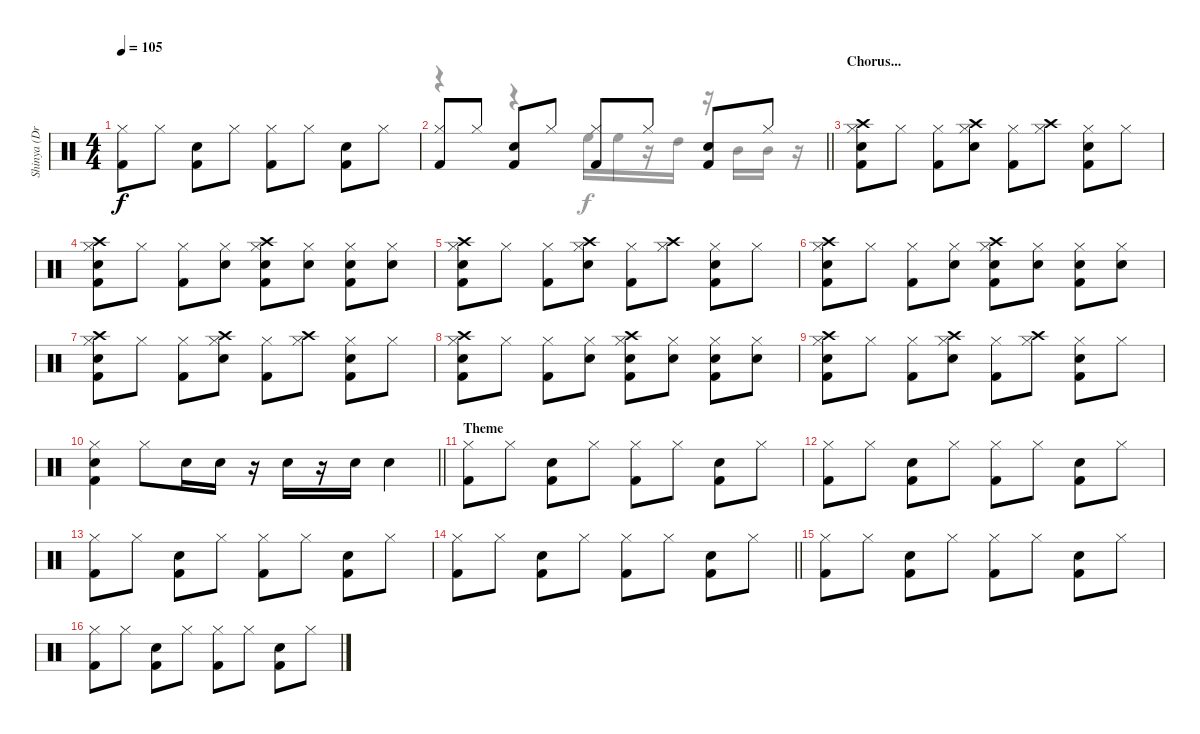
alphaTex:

\track ("Shinya (Drums)" "Shinya (Dr") {instrument percussion}
\staff {score}
\articulation defaults
\voice
\ts (4 4)
\tempo 105
\clef neutral
\ks c
("Hi-Hat (closed)" "Kick (hit) 2").8{dy f} "Hi-Hat (closed)".8 ("Snare (hit) 2" "Kick (hit) 2").8 "Hi-Hat (closed)".8 ("Hi-Hat (closed)" "Kick (hit) 2").8 "Hi-Hat (closed)".8 ("Snare (hit) 2" "Kick (hit) 2").8 "Hi-Hat (closed)".8 |
\barLineRight lightlight
("Hi-Hat (closed)" "Kick (hit) 2").8 "Hi-Hat (closed)".8 ("Snare (hit) 2" "Kick (hit) 2").8 "Hi-Hat (closed)".8 ("Hi-Hat (closed)" "Kick (hit) 2").8 "Hi-Hat (closed)".8 ("Snare (hit) 2" "Kick (hit) 2").8 "Hi-Hat (closed)".8 |
\section ("" "Chorus...")
("Crash high (hit)" "Hi-Hat (closed)" "Snare (hit) 2" "Kick (hit) 2").8 "Hi-Hat (closed)".8 ("Hi-Hat (closed)" "Kick (hit) 2").8 ("Crash high (hit)" "Hi-Hat (closed)" "Snare (hit) 2").8 ("Hi-Hat (closed)" "Kick (hit) 2").8 ("Crash high (hit)" "Hi-Hat (closed)").8 ("Hi-Hat (closed)" "Snare (hit) 2" "Kick (hit) 2").8 "Hi-Hat (closed)".8 |
("Crash high (hit)" "Hi-Hat (closed)" "Snare (hit) 2" "Kick (hit) 2").8 "Hi-Hat (closed)".8 ("Hi-Hat (closed)" "Kick (hit) 2").8 ("Hi-Hat (closed)" "Snare (hit) 2").8 ("Crash high (hit)" "Hi-Hat (closed)" "Snare (hit) 2" "Kick (hit) 2").8 ("Hi-Hat (closed)" "Snare (hit) 2").8 ("Hi-Hat (closed)" "Snare (hit) 2" "Kick (hit) 2").8 ("Hi-Hat (closed)" "Snare (hit) 2").8 |
("Crash high (hit)" "Hi-Hat (closed)" "Snare (hit) 2" "Kick (hit) 2").8 "Hi-Hat (closed)".8 ("Hi-Hat (closed)" "Kick (hit) 2").8 ("Crash high (hit)" "Hi-Hat (closed)" "Snare (hit) 2").8 ("Hi-Hat (closed)" "Kick (hit) 2").8 ("Crash high (hit)" "Hi-Hat (closed)").8 ("Hi-Hat (closed)" "Snare (hit) 2" "Kick (hit) 2").8 "Hi-Hat (closed)".8 |
("Crash high (hit)" "Hi-Hat (closed)" "Snare (hit) 2" "Kick (hit) 2").8 "Hi-Hat (closed)".8 ("Hi-Hat (closed)" "Kick (hit) 2").8 ("Hi-Hat (closed)" "Snare (hit) 2").8 ("Crash high (hit)" "Hi-Hat (closed)" "Snare (hit) 2" "Kick (hit) 2").8 ("Hi-Hat (closed)" "Snare (hit) 2").8 ("Hi-Hat (closed)" "Snare (hit) 2" "Kick (hit) 2").8 ("Hi-Hat (closed)" "Snare (hit) 2").8 |
("Crash high (hit)" "Hi-Hat (closed)" "Snare (hit) 2" "Kick (hit) 2").8 "Hi-Hat (closed)".8 ("Hi-Hat (closed)" "Kick (hit) 2").8 ("Crash high (hit)" "Hi-Hat (closed)" "Snare (hit) 2").8 ("Hi-Hat (closed)" "Kick (hit) 2").8 ("Crash high (hit)" "Hi-Hat (closed)").8 ("Hi-Hat (closed)" "Snare (hit) 2" "Kick (hit) 2").8 "Hi-Hat (closed)".8 |
("Crash high (hit)" "Hi-Hat (closed)" "Snare (hit) 2" "Kick (hit) 2").8 "Hi-Hat (closed)".8 ("Hi-Hat (closed)" "Kick (hit) 2").8 ("Hi-Hat (closed)" "Snare (hit) 2").8 ("Crash high (hit)" "Hi-Hat (closed)" "Snare (hit) 2" "Kick (hit) 2").8 ("Hi-Hat (closed)" "Snare (hit) 2").8 ("Hi-Hat (closed)" "Snare (hit) 2" "Kick (hit) 2").8 ("Hi-Hat (closed)" "Snare (hit) 2").8 |
("Crash high (hit)" "Hi-Hat (closed)" "Snare (hit) 2" "Kick (hit) 2").8 "Hi-Hat (closed)".8 ("Hi-Hat (closed)" "Kick (hit) 2").8 ("Crash high (hit)" "Hi-Hat (closed)" "Snare (hit) 2").8 ("Hi-Hat (closed)" "Kick (hit) 2").8 ("Crash high (hit)" "Hi-Hat (closed)").8 ("Hi-Hat (closed)" "Snare (hit) 2" "Kick (hit) 2").8 "Hi-Hat (closed)".8 |
\barLineRight lightlight
("Hi-Hat (closed)" "Snare (hit) 2" "Kick (hit) 2").4 "Hi-Hat (closed)".8 "Snare (hit) 2".16 "Snare (hit) 2".16 r.16 "Snare (hit) 2".16 r.16 "Snare (hit) 2".16 "Snare (hit) 2".4 |
\section ("" "Theme")
("Hi-Hat (closed)" "Kick (hit) 2").8 "Hi-Hat (closed)".8 ("Snare (hit) 2" "Kick (hit) 2").8 "Hi-Hat (closed)".8 ("Hi-Hat (closed)" "Kick (hit) 2").8 "Hi-Hat (closed)".8 ("Snare (hit) 2" "Kick (hit) 2").8 "Hi-Hat (closed)".8 |
("Hi-Hat (closed)" "Kick (hit) 2").8 "Hi-Hat (closed)".8 ("Snare (hit) 2" "Kick (hit) 2").8 "Hi-Hat (closed)".8 ("Hi-Hat (closed)" "Kick (hit) 2").8 "Hi-Hat (closed)".8 ("Snare (hit) 2" "Kick (hit) 2").8 "Hi-Hat (closed)".8 |
("Hi-Hat (closed)" "Kick (hit) 2").8 "Hi-Hat (closed)".8 ("Snare (hit) 2" "Kick (hit) 2").8 "Hi-Hat (closed)".8 ("Hi-Hat (closed)" "Kick (hit) 2").8 "Hi-Hat (closed)".8 ("Snare (hit) 2" "Kick (hit) 2").8 "Hi-Hat (closed)".8 |
\barLineRight lightlight
("Hi-Hat (closed)" "Kick (hit) 2").8 "Hi-Hat (closed)".8 ("Snare (hit) 2" "Kick (hit) 2").8 "Hi-Hat (closed)".8 ("Hi-Hat (closed)" "Kick (hit) 2").8 "Hi-Hat (closed)".8 ("Snare (hit) 2" "Kick (hit) 2").8 "Hi-Hat (closed)".8 |
("Hi-Hat (closed)" "Kick (hit) 2").8 "Hi-Hat (closed)".8 ("Snare (hit) 2" "Kick (hit) 2").8 "Hi-Hat (closed)".8 ("Hi-Hat (closed)" "Kick (hit) 2").8 "Hi-Hat (closed)".8 ("Snare (hit) 2" "Kick (hit) 2").8 "Hi-Hat (closed)".8 |
("Hi-Hat (closed)" "Kick (hit) 2").8 "Hi-Hat (closed)".8 ("Snare (hit) 2" "Kick (hit) 2").8 "Hi-Hat (closed)".8 ("Hi-Hat (closed)" "Kick (hit) 2").8 "Hi-Hat (closed)".8 ("Snare (hit) 2" "Kick (hit) 2").8 "Hi-Hat (closed)".8
\voice
\clef neutral
\ottava regular
\simile none
\ks c
|
\barLineRight lightlight
r.4 r.4 "High Floor Tom (hit)".16 "High Floor Tom (hit)".16 r.16 "High Tom (hit)".16 r.16 "Mid Tom (hit)".16 "Mid Tom (hit)".16 r.16 |
|
|
|
|
|
|
|
\barLineRight lightlight
|
|
|
|
\barLineRight lightlight
|
|
